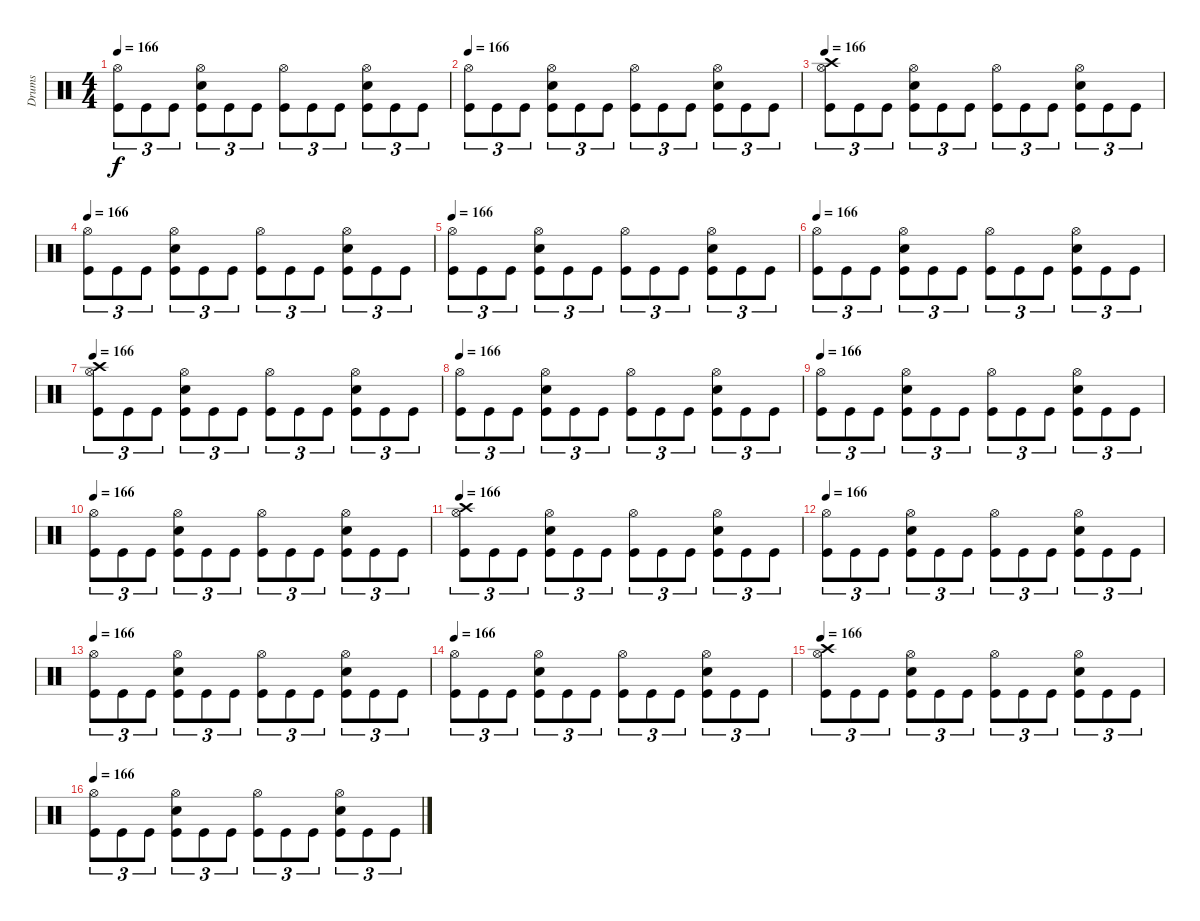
\track ("Drums" "Drums") {instrument percussion}
\staff {score}
\articulation defaults
\ts (4 4)
\tempo 166
\clef neutral
\ks c
("Hi-Hat (open)" "Kick (hit)").8{tu (3 2) dy f} "Kick (hit)".8{tu (3 2)} "Kick (hit)".8{tu (3 2)} ("Hi-Hat (open)" "Electric Snare (hit)" "Kick (hit)").8{tu (3 2)} "Kick (hit)".8{tu (3 2)} "Kick (hit)".8{tu (3 2)} ("Hi-Hat (open)" "Kick (hit)").8{tu (3 2)} "Kick (hit)".8{tu (3 2)} "Kick (hit)".8{tu (3 2)} ("Hi-Hat (open)" "Electric Snare (hit)" "Kick (hit)").8{tu (3 2)} "Kick (hit)".8{tu (3 2)} "Kick (hit)".8{tu (3 2)} |
\tempo 166
("Hi-Hat (open)" "Kick (hit)").8{tu (3 2)} "Kick (hit)".8{tu (3 2)} "Kick (hit)".8{tu (3 2)} ("Hi-Hat (open)" "Electric Snare (hit)" "Kick (hit)").8{tu (3 2)} "Kick (hit)".8{tu (3 2)} "Kick (hit)".8{tu (3 2)} ("Hi-Hat (open)" "Kick (hit)").8{tu (3 2)} "Kick (hit)".8{tu (3 2)} "Kick (hit)".8{tu (3 2)} ("Hi-Hat (open)" "Electric Snare (hit)" "Kick (hit)").8{tu (3 2)} "Kick (hit)".8{tu (3 2)} "Kick (hit)".8{tu (3 2)} |
\tempo 166
("Hi-Hat (open)" "Crash high (hit)" "Kick (hit)").8{tu (3 2)} "Kick (hit)".8{tu (3 2)} "Kick (hit)".8{tu (3 2)} ("Hi-Hat (open)" "Electric Snare (hit)" "Kick (hit)").8{tu (3 2)} "Kick (hit)".8{tu (3 2)} "Kick (hit)".8{tu (3 2)} ("Hi-Hat (open)" "Kick (hit)").8{tu (3 2)} "Kick (hit)".8{tu (3 2)} "Kick (hit)".8{tu (3 2)} ("Hi-Hat (open)" "Electric Snare (hit)" "Kick (hit)").8{tu (3 2)} "Kick (hit)".8{tu (3 2)} "Kick (hit)".8{tu (3 2)} |
\tempo 166
("Hi-Hat (open)" "Kick (hit)").8{tu (3 2)} "Kick (hit)".8{tu (3 2)} "Kick (hit)".8{tu (3 2)} ("Hi-Hat (open)" "Electric Snare (hit)" "Kick (hit)").8{tu (3 2)} "Kick (hit)".8{tu (3 2)} "Kick (hit)".8{tu (3 2)} ("Hi-Hat (open)" "Kick (hit)").8{tu (3 2)} "Kick (hit)".8{tu (3 2)} "Kick (hit)".8{tu (3 2)} ("Hi-Hat (open)" "Electric Snare (hit)" "Kick (hit)").8{tu (3 2)} "Kick (hit)".8{tu (3 2)} "Kick (hit)".8{tu (3 2)} |
\tempo 166
("Hi-Hat (open)" "Kick (hit)").8{tu (3 2)} "Kick (hit)".8{tu (3 2)} "Kick (hit)".8{tu (3 2)} ("Hi-Hat (open)" "Electric Snare (hit)" "Kick (hit)").8{tu (3 2)} "Kick (hit)".8{tu (3 2)} "Kick (hit)".8{tu (3 2)} ("Hi-Hat (open)" "Kick (hit)").8{tu (3 2)} "Kick (hit)".8{tu (3 2)} "Kick (hit)".8{tu (3 2)} ("Hi-Hat (open)" "Electric Snare (hit)" "Kick (hit)").8{tu (3 2)} "Kick (hit)".8{tu (3 2)} "Kick (hit)".8{tu (3 2)} |
\tempo 166
("Hi-Hat (open)" "Kick (hit)").8{tu (3 2)} "Kick (hit)".8{tu (3 2)} "Kick (hit)".8{tu (3 2)} ("Hi-Hat (open)" "Electric Snare (hit)" "Kick (hit)").8{tu (3 2)} "Kick (hit)".8{tu (3 2)} "Kick (hit)".8{tu (3 2)} ("Hi-Hat (open)" "Kick (hit)").8{tu (3 2)} "Kick (hit)".8{tu (3 2)} "Kick (hit)".8{tu (3 2)} ("Hi-Hat (open)" "Electric Snare (hit)" "Kick (hit)").8{tu (3 2)} "Kick (hit)".8{tu (3 2)} "Kick (hit)".8{tu (3 2)} |
\tempo 166
("Hi-Hat (open)" "Crash high (hit)" "Kick (hit)").8{tu (3 2)} "Kick (hit)".8{tu (3 2)} "Kick (hit)".8{tu (3 2)} ("Hi-Hat (open)" "Electric Snare (hit)" "Kick (hit)").8{tu (3 2)} "Kick (hit)".8{tu (3 2)} "Kick (hit)".8{tu (3 2)} ("Hi-Hat (open)" "Kick (hit)").8{tu (3 2)} "Kick (hit)".8{tu (3 2)} "Kick (hit)".8{tu (3 2)} ("Hi-Hat (open)" "Electric Snare (hit)" "Kick (hit)").8{tu (3 2)} "Kick (hit)".8{tu (3 2)} "Kick (hit)".8{tu (3 2)} |
\tempo 166
("Hi-Hat (open)" "Kick (hit)").8{tu (3 2)} "Kick (hit)".8{tu (3 2)} "Kick (hit)".8{tu (3 2)} ("Hi-Hat (open)" "Electric Snare (hit)" "Kick (hit)").8{tu (3 2)} "Kick (hit)".8{tu (3 2)} "Kick (hit)".8{tu (3 2)} ("Hi-Hat (open)" "Kick (hit)").8{tu (3 2)} "Kick (hit)".8{tu (3 2)} "Kick (hit)".8{tu (3 2)} ("Hi-Hat (open)" "Electric Snare (hit)" "Kick (hit)").8{tu (3 2)} "Kick (hit)".8{tu (3 2)} "Kick (hit)".8{tu (3 2)} |
\tempo 166
("Hi-Hat (open)" "Kick (hit)").8{tu (3 2)} "Kick (hit)".8{tu (3 2)} "Kick (hit)".8{tu (3 2)} ("Hi-Hat (open)" "Electric Snare (hit)" "Kick (hit)").8{tu (3 2)} "Kick (hit)".8{tu (3 2)} "Kick (hit)".8{tu (3 2)} ("Hi-Hat (open)" "Kick (hit)").8{tu (3 2)} "Kick (hit)".8{tu (3 2)} "Kick (hit)".8{tu (3 2)} ("Hi-Hat (open)" "Electric Snare (hit)" "Kick (hit)").8{tu (3 2)} "Kick (hit)".8{tu (3 2)} "Kick (hit)".8{tu (3 2)} |
\tempo 166
("Hi-Hat (open)" "Kick (hit)").8{tu (3 2)} "Kick (hit)".8{tu (3 2)} "Kick (hit)".8{tu (3 2)} ("Hi-Hat (open)" "Electric Snare (hit)" "Kick (hit)").8{tu (3 2)} "Kick (hit)".8{tu (3 2)} "Kick (hit)".8{tu (3 2)} ("Hi-Hat (open)" "Kick (hit)").8{tu (3 2)} "Kick (hit)".8{tu (3 2)} "Kick (hit)".8{tu (3 2)} ("Hi-Hat (open)" "Electric Snare (hit)" "Kick (hit)").8{tu (3 2)} "Kick (hit)".8{tu (3 2)} "Kick (hit)".8{tu (3 2)} |
\tempo 166
("Hi-Hat (open)" "Crash high (hit)" "Kick (hit)").8{tu (3 2)} "Kick (hit)".8{tu (3 2)} "Kick (hit)".8{tu (3 2)} ("Hi-Hat (open)" "Electric Snare (hit)" "Kick (hit)").8{tu (3 2)} "Kick (hit)".8{tu (3 2)} "Kick (hit)".8{tu (3 2)} ("Hi-Hat (open)" "Kick (hit)").8{tu (3 2)} "Kick (hit)".8{tu (3 2)} "Kick (hit)".8{tu (3 2)} ("Hi-Hat (open)" "Electric Snare (hit)" "Kick (hit)").8{tu (3 2)} "Kick (hit)".8{tu (3 2)} "Kick (hit)".8{tu (3 2)} |
\tempo 166
("Hi-Hat (open)" "Kick (hit)").8{tu (3 2)} "Kick (hit)".8{tu (3 2)} "Kick (hit)".8{tu (3 2)} ("Hi-Hat (open)" "Electric Snare (hit)" "Kick (hit)").8{tu (3 2)} "Kick (hit)".8{tu (3 2)} "Kick (hit)".8{tu (3 2)} ("Hi-Hat (open)" "Kick (hit)").8{tu (3 2)} "Kick (hit)".8{tu (3 2)} "Kick (hit)".8{tu (3 2)} ("Hi-Hat (open)" "Electric Snare (hit)" "Kick (hit)").8{tu (3 2)} "Kick (hit)".8{tu (3 2)} "Kick (hit)".8{tu (3 2)} |
\tempo 166
("Hi-Hat (open)" "Kick (hit)").8{tu (3 2)} "Kick (hit)".8{tu (3 2)} "Kick (hit)".8{tu (3 2)} ("Hi-Hat (open)" "Electric Snare (hit)" "Kick (hit)").8{tu (3 2)} "Kick (hit)".8{tu (3 2)} "Kick (hit)".8{tu (3 2)} ("Hi-Hat (open)" "Kick (hit)").8{tu (3 2)} "Kick (hit)".8{tu (3 2)} "Kick (hit)".8{tu (3 2)} ("Hi-Hat (open)" "Electric Snare (hit)" "Kick (hit)").8{tu (3 2)} "Kick (hit)".8{tu (3 2)} "Kick (hit)".8{tu (3 2)} |
\tempo 166
("Hi-Hat (open)" "Kick (hit)").8{tu (3 2)} "Kick (hit)".8{tu (3 2)} "Kick (hit)".8{tu (3 2)} ("Hi-Hat (open)" "Electric Snare (hit)" "Kick (hit)").8{tu (3 2)} "Kick (hit)".8{tu (3 2)} "Kick (hit)".8{tu (3 2)} ("Hi-Hat (open)" "Kick (hit)").8{tu (3 2)} "Kick (hit)".8{tu (3 2)} "Kick (hit)".8{tu (3 2)} ("Hi-Hat (open)" "Electric Snare (hit)" "Kick (hit)").8{tu (3 2)} "Kick (hit)".8{tu (3 2)} "Kick (hit)".8{tu (3 2)} |
\tempo 166
("Hi-Hat (open)" "Crash high (hit)" "Kick (hit)").8{tu (3 2)} "Kick (hit)".8{tu (3 2)} "Kick (hit)".8{tu (3 2)} ("Hi-Hat (open)" "Electric Snare (hit)" "Kick (hit)").8{tu (3 2)} "Kick (hit)".8{tu (3 2)} "Kick (hit)".8{tu (3 2)} ("Hi-Hat (open)" "Kick (hit)").8{tu (3 2)} "Kick (hit)".8{tu (3 2)} "Kick (hit)".8{tu (3 2)} ("Hi-Hat (open)" "Electric Snare (hit)" "Kick (hit)").8{tu (3 2)} "Kick (hit)".8{tu (3 2)} "Kick (hit)".8{tu (3 2)} |
\tempo 166
("Hi-Hat (open)" "Kick (hit)").8{tu (3 2)} "Kick (hit)".8{tu (3 2)} "Kick (hit)".8{tu (3 2)} ("Hi-Hat (open)" "Electric Snare (hit)" "Kick (hit)").8{tu (3 2)} "Kick (hit)".8{tu (3 2)} "Kick (hit)".8{tu (3 2)} ("Hi-Hat (open)" "Kick (hit)").8{tu (3 2)} "Kick (hit)".8{tu (3 2)} "Kick (hit)".8{tu (3 2)} ("Hi-Hat (open)" "Electric Snare (hit)" "Kick (hit)").8{tu (3 2)} "Kick (hit)".8{tu (3 2)} "Kick (hit)".8{tu (3 2)}
